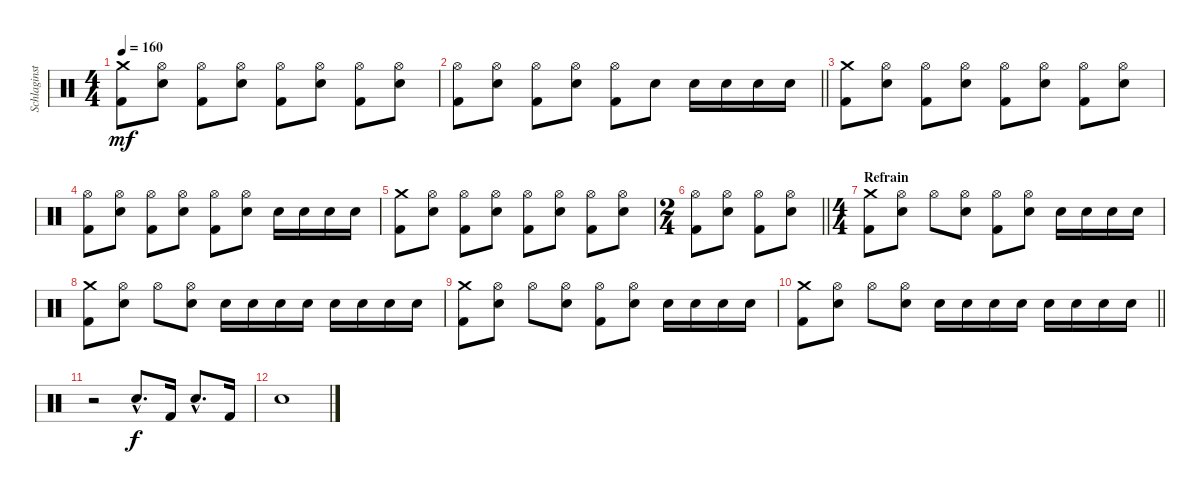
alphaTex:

\track ("Schlaginstrumente - Auswahl" "Schlaginst") {instrument percussion}
\staff {score}
\articulation defaults
\ts (4 4)
\tempo 160
\clef neutral
\ks c
("Crash medium (hit)" "Kick (hit) 2").8{dy mf} ("Hi-Hat (open)" "Snare (hit) 2").8 ("Hi-Hat (open)" "Kick (hit) 2").8 ("Hi-Hat (open)" "Snare (hit) 2").8 ("Hi-Hat (open)" "Kick (hit) 2").8 ("Hi-Hat (open)" "Snare (hit) 2").8 ("Hi-Hat (open)" "Kick (hit) 2").8 ("Hi-Hat (open)" "Snare (hit) 2").8 |
\barLineRight lightlight
("Hi-Hat (open)" "Kick (hit) 2").8 ("Hi-Hat (open)" "Snare (hit) 2").8 ("Hi-Hat (open)" "Kick (hit) 2").8 ("Hi-Hat (open)" "Snare (hit) 2").8 ("Hi-Hat (open)" "Kick (hit) 2").8 "Snare (hit) 2".8 "Snare (hit) 2".16 "Snare (hit) 2".16 "Snare (hit) 2".16 "Snare (hit) 2".16 |
("Crash medium (hit)" "Kick (hit) 2").8 ("Hi-Hat (open)" "Snare (hit) 2").8 ("Hi-Hat (open)" "Kick (hit) 2").8 ("Hi-Hat (open)" "Snare (hit) 2").8 ("Hi-Hat (open)" "Kick (hit) 2").8 ("Hi-Hat (open)" "Snare (hit) 2").8 ("Hi-Hat (open)" "Kick (hit) 2").8 ("Hi-Hat (open)" "Snare (hit) 2").8 |
("Hi-Hat (open)" "Kick (hit) 2").8 ("Hi-Hat (open)" "Snare (hit) 2").8 ("Hi-Hat (open)" "Kick (hit) 2").8 ("Hi-Hat (open)" "Snare (hit) 2").8 ("Hi-Hat (open)" "Kick (hit) 2").8 ("Hi-Hat (open)" "Snare (hit) 2").8 "Snare (hit) 2".16 "Snare (hit) 2".16 "Snare (hit) 2".16 "Snare (hit) 2".16 |
("Crash medium (hit)" "Kick (hit) 2").8 ("Hi-Hat (open)" "Snare (hit) 2").8 ("Hi-Hat (open)" "Kick (hit) 2").8 ("Hi-Hat (open)" "Snare (hit) 2").8 ("Hi-Hat (open)" "Kick (hit) 2").8 ("Hi-Hat (open)" "Snare (hit) 2").8 ("Hi-Hat (open)" "Kick (hit) 2").8 ("Hi-Hat (open)" "Snare (hit) 2").8 |
\ts (2 4)
\barLineRight lightlight
("Hi-Hat (open)" "Kick (hit) 2").8 ("Hi-Hat (open)" "Snare (hit) 2").8 ("Hi-Hat (open)" "Kick (hit) 2").8 ("Hi-Hat (open)" "Snare (hit) 2").8 |
\ts (4 4)
\section ("" "Refrain")
("Crash medium (hit)" "Kick (hit) 2").8 ("Hi-Hat (open)" "Snare (hit) 2").8 "Hi-Hat (open)".8 ("Hi-Hat (open)" "Snare (hit) 2").8 ("Hi-Hat (open)" "Kick (hit) 2").8 ("Hi-Hat (open)" "Snare (hit) 2").8 "Snare (hit) 2".16 "Snare (hit) 2".16 "Snare (hit) 2".16 "Snare (hit) 2".16 |
("Crash medium (hit)" "Kick (hit) 2").8 ("Hi-Hat (open)" "Snare (hit) 2").8 "Hi-Hat (open)".8 ("Hi-Hat (open)" "Snare (hit) 2").8 "Snare (hit) 2".16 "Snare (hit) 2".16 "Snare (hit) 2".16 "Snare (hit) 2".16 "Snare (hit) 2".16 "Snare (hit) 2".16 "Snare (hit) 2".16 "Snare (hit) 2".16 |
("Crash medium (hit)" "Kick (hit) 2").8 ("Hi-Hat (open)" "Snare (hit) 2").8 "Hi-Hat (open)".8 ("Hi-Hat (open)" "Snare (hit) 2").8 ("Hi-Hat (open)" "Kick (hit) 2").8 ("Hi-Hat (open)" "Snare (hit) 2").8 "Snare (hit) 2".16 "Snare (hit) 2".16 "Snare (hit) 2".16 "Snare (hit) 2".16 |
\barLineRight lightlight
("Crash medium (hit)" "Kick (hit) 2").8 ("Hi-Hat (open)" "Snare (hit) 2").8 "Hi-Hat (open)".8 ("Hi-Hat (open)" "Snare (hit) 2").8 "Snare (hit) 2".16 "Snare (hit) 2".16 "Snare (hit) 2".16 "Snare (hit) 2".16 "Snare (hit) 2".16 "Snare (hit) 2".16 "Snare (hit) 2".16 "Snare (hit) 2".16 |
r.2 "Snare (hit) 2"{hac}.8{d dy f} "Kick (hit) 2".16 "Snare (hit) 2"{hac}.8{d} "Kick (hit) 2".16 |
"Snare (hit) 2".1
